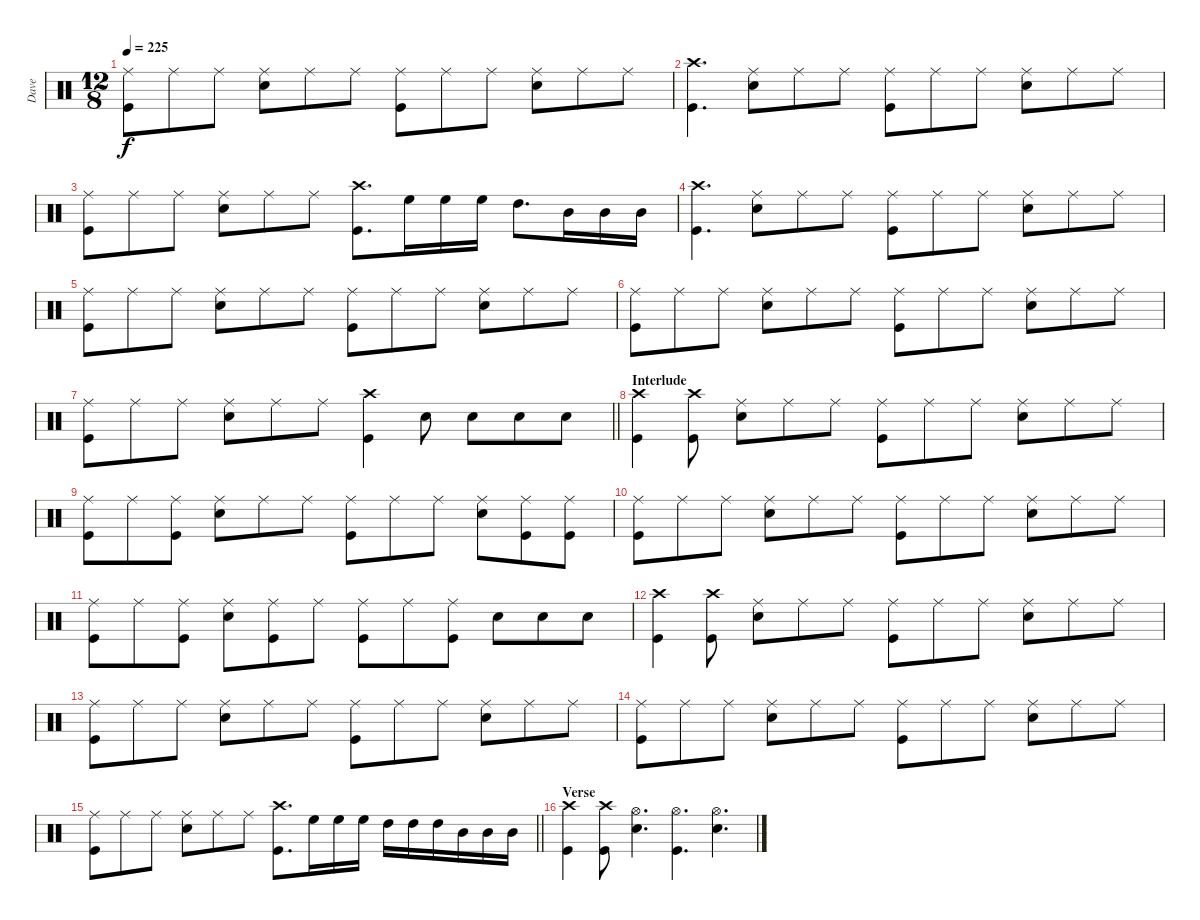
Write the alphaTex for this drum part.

\track ("Dave" "Dave") {instrument percussion}
\staff {score}
\articulation defaults
\ts (12 8)
\tempo 225
\clef neutral
\ks c
("Ride (middle)" "Kick (hit)").8{dy f} "Ride (middle)".8 "Ride (middle)".8 ("Ride (middle)" "Snare (hit) 2").8 "Ride (middle)".8 "Ride (middle)".8 ("Ride (middle)" "Kick (hit)").8 "Ride (middle)".8 "Ride (middle)".8 ("Ride (middle)" "Snare (hit) 2").8 "Ride (middle)".8 "Ride (middle)".8 |
("Crash high (hit)" "Kick (hit)").4{d} ("Ride (middle)" "Snare (hit) 2").8 "Ride (middle)".8 "Ride (middle)".8 ("Ride (middle)" "Kick (hit)").8 "Ride (middle)".8 "Ride (middle)".8 ("Ride (middle)" "Snare (hit) 2").8 "Ride (middle)".8 "Ride (middle)".8 |
("Ride (middle)" "Kick (hit)").8 "Ride (middle)".8 "Ride (middle)".8 ("Ride (middle)" "Snare (hit) 2").8 "Ride (middle)".8 "Ride (middle)".8 ("Crash high (hit)" "Kick (hit)").8{d} "High Floor Tom (hit)".16 "High Floor Tom (hit)".16 "High Floor Tom (hit)".16 "High Tom (hit)".8{d} "Mid Tom (hit)".16 "Mid Tom (hit)".16 "Mid Tom (hit)".16 |
("Crash high (hit)" "Kick (hit)").4{d} ("Ride (middle)" "Snare (hit) 2").8 "Ride (middle)".8 "Ride (middle)".8 ("Ride (middle)" "Kick (hit)").8 "Ride (middle)".8 "Ride (middle)".8 ("Ride (middle)" "Snare (hit) 2").8 "Ride (middle)".8 "Ride (middle)".8 |
("Ride (middle)" "Kick (hit)").8 "Ride (middle)".8 "Ride (middle)".8 ("Ride (middle)" "Snare (hit) 2").8 "Ride (middle)".8 "Ride (middle)".8 ("Ride (middle)" "Kick (hit)").8 "Ride (middle)".8 "Ride (middle)".8 ("Ride (middle)" "Snare (hit) 2").8 "Ride (middle)".8 "Ride (middle)".8 |
("Ride (middle)" "Kick (hit)").8 "Ride (middle)".8 "Ride (middle)".8 ("Ride (middle)" "Snare (hit) 2").8 "Ride (middle)".8 "Ride (middle)".8 ("Ride (middle)" "Kick (hit)").8 "Ride (middle)".8 "Ride (middle)".8 ("Ride (middle)" "Snare (hit) 2").8 "Ride (middle)".8 "Ride (middle)".8 |
\barLineRight lightlight
("Ride (middle)" "Kick (hit)").8 "Ride (middle)".8 "Ride (middle)".8 ("Ride (middle)" "Snare (hit) 2").8 "Ride (middle)".8 "Ride (middle)".8 ("Crash high (hit)" "Kick (hit)").4 "Snare (hit) 2".8 "Snare (hit) 2".8 "Snare (hit) 2".8 "Snare (hit) 2".8 |
\section ("" "Interlude")
("Crash high (hit)" "Kick (hit)").4 ("Crash high (hit)" "Kick (hit)").8 ("Ride (middle)" "Snare (hit) 2").8 "Ride (middle)".8 "Ride (middle)".8 ("Ride (middle)" "Kick (hit)").8 "Ride (middle)".8 "Ride (middle)".8 ("Ride (middle)" "Snare (hit) 2").8 "Ride (middle)".8 "Ride (middle)".8 |
("Ride (middle)" "Kick (hit)").8 "Ride (middle)".8 ("Ride (middle)" "Kick (hit)").8 ("Ride (middle)" "Snare (hit) 2").8 "Ride (middle)".8 "Ride (middle)".8 ("Ride (middle)" "Kick (hit)").8 "Ride (middle)".8 "Ride (middle)".8 ("Ride (middle)" "Snare (hit) 2").8 ("Ride (middle)" "Kick (hit)").8 ("Ride (middle)" "Kick (hit)").8 |
("Ride (middle)" "Kick (hit)").8 "Ride (middle)".8 "Ride (middle)".8 ("Ride (middle)" "Snare (hit) 2").8 "Ride (middle)".8 "Ride (middle)".8 ("Ride (middle)" "Kick (hit)").8 "Ride (middle)".8 "Ride (middle)".8 ("Ride (middle)" "Snare (hit) 2").8 "Ride (middle)".8 "Ride (middle)".8 |
("Ride (middle)" "Kick (hit)").8 "Ride (middle)".8 ("Ride (middle)" "Kick (hit)").8 ("Ride (middle)" "Snare (hit) 2").8 ("Ride (middle)" "Kick (hit)").8 "Ride (middle)".8 ("Ride (middle)" "Kick (hit)").8 "Ride (middle)".8 ("Ride (middle)" "Kick (hit)").8 "Snare (hit) 2".8 "Snare (hit) 2".8 "Snare (hit) 2".8 |
("Crash high (hit)" "Kick (hit)").4 ("Crash high (hit)" "Kick (hit)").8 ("Ride (middle)" "Snare (hit) 2").8 "Ride (middle)".8 "Ride (middle)".8 ("Ride (middle)" "Kick (hit)").8 "Ride (middle)".8 "Ride (middle)".8 ("Ride (middle)" "Snare (hit) 2").8 "Ride (middle)".8 "Ride (middle)".8 |
("Ride (middle)" "Kick (hit)").8 "Ride (middle)".8 "Ride (middle)".8 ("Ride (middle)" "Snare (hit) 2").8 "Ride (middle)".8 "Ride (middle)".8 ("Ride (middle)" "Kick (hit)").8 "Ride (middle)".8 "Ride (middle)".8 ("Ride (middle)" "Snare (hit) 2").8 "Ride (middle)".8 "Ride (middle)".8 |
("Ride (middle)" "Kick (hit)").8 "Ride (middle)".8 "Ride (middle)".8 ("Ride (middle)" "Snare (hit) 2").8 "Ride (middle)".8 "Ride (middle)".8 ("Ride (middle)" "Kick (hit)").8 "Ride (middle)".8 "Ride (middle)".8 ("Ride (middle)" "Snare (hit) 2").8 "Ride (middle)".8 "Ride (middle)".8 |
\barLineRight lightlight
("Ride (middle)" "Kick (hit)").8 "Ride (middle)".8 "Ride (middle)".8 ("Ride (middle)" "Snare (hit) 2").8 "Ride (middle)".8 "Ride (middle)".8 ("Crash high (hit)" "Kick (hit)").8{d} "High Floor Tom (hit)".16 "High Floor Tom (hit)".16 "High Floor Tom (hit)".16 "High Tom (hit)".16 "High Tom (hit)".16 "High Tom (hit)".16 "Mid Tom (hit)".16 "Mid Tom (hit)".16 "Mid Tom (hit)".16 |
\section ("" "Verse")
("Crash high (hit)" "Kick (hit)").4 ("Crash high (hit)" "Kick (hit)").8 ("Hi-Hat (open)" "Snare (hit) 2").4{d} ("Hi-Hat (open)" "Kick (hit)").4{d} ("Hi-Hat (open)" "Snare (hit) 2").4{d}
